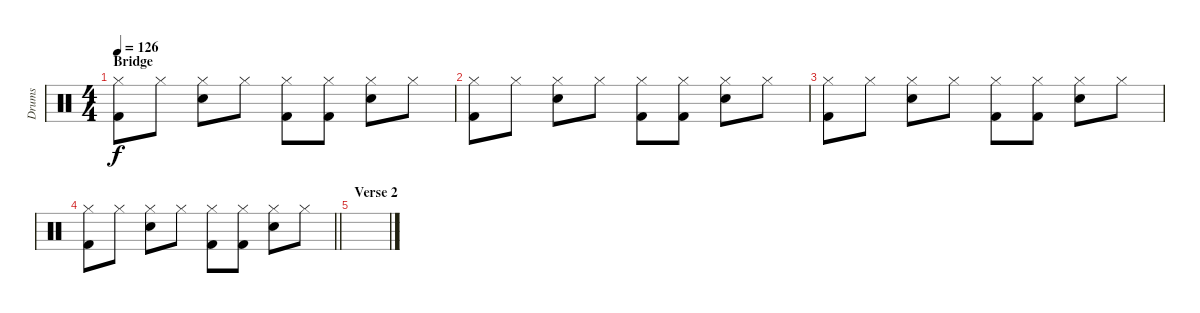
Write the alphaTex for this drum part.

\track ("Drums" "Drums") {instrument percussion}
\staff {score}
\articulation defaults
\ts (4 4)
\section ("" "Bridge")
\tempo 126
\clef neutral
\ks c
("Hi-Hat (closed)" "Kick (hit) 2").8{dy f} "Hi-Hat (closed)".8 ("Hi-Hat (closed)" "Snare (hit) 2").8 "Hi-Hat (closed)".8 ("Hi-Hat (closed)" "Kick (hit) 2").8 ("Hi-Hat (closed)" "Kick (hit) 2").8 ("Hi-Hat (closed)" "Snare (hit) 2").8 "Hi-Hat (closed)".8 |
("Hi-Hat (closed)" "Kick (hit) 2").8 "Hi-Hat (closed)".8 ("Hi-Hat (closed)" "Snare (hit) 2").8 "Hi-Hat (closed)".8 ("Hi-Hat (closed)" "Kick (hit) 2").8 ("Hi-Hat (closed)" "Kick (hit) 2").8 ("Hi-Hat (closed)" "Snare (hit) 2").8 "Hi-Hat (closed)".8 |
("Hi-Hat (closed)" "Kick (hit) 2").8 "Hi-Hat (closed)".8 ("Hi-Hat (closed)" "Snare (hit) 2").8 "Hi-Hat (closed)".8 ("Hi-Hat (closed)" "Kick (hit) 2").8 ("Hi-Hat (closed)" "Kick (hit) 2").8 ("Hi-Hat (closed)" "Snare (hit) 2").8 "Hi-Hat (closed)".8 |
\barLineRight lightlight
("Hi-Hat (closed)" "Kick (hit) 2").8 "Hi-Hat (closed)".8 ("Hi-Hat (closed)" "Snare (hit) 2").8 "Hi-Hat (closed)".8 ("Hi-Hat (closed)" "Kick (hit) 2").8 ("Hi-Hat (closed)" "Kick (hit) 2").8 ("Hi-Hat (closed)" "Snare (hit) 2").8 "Hi-Hat (closed)".8 |
\section ("" "Verse 2")
